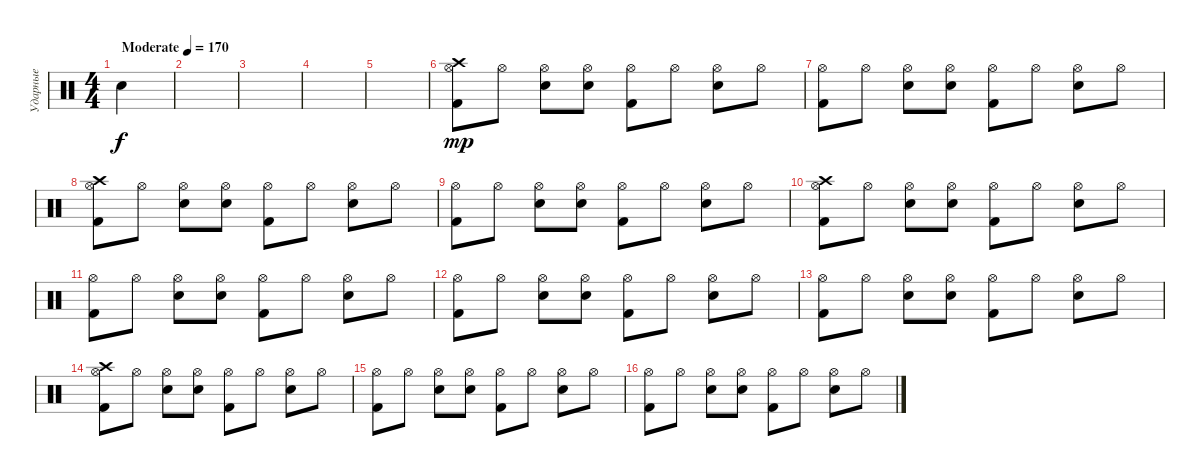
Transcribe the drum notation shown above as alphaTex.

\track ("Ударные" "Ударные") {instrument percussion}
\staff {score}
\articulation defaults
\ts (4 4)
\tempo (170 "Moderate")
\clef neutral
\ks c "Snare (hit)".4{dy f}
|
|
|
|
|
("Crash high (hit)" "Hi-Hat (open)" "Kick (hit) 2").8{dy mp} "Hi-Hat (open)".8 ("Hi-Hat (open)" "Electric Snare (hit)").8 ("Hi-Hat (open)" "Electric Snare (hit)").8 ("Hi-Hat (open)" "Kick (hit) 2").8 "Hi-Hat (open)".8 ("Hi-Hat (open)" "Electric Snare (hit)").8 "Hi-Hat (open)".8 |
("Hi-Hat (open)" "Kick (hit) 2").8 "Hi-Hat (open)".8 ("Hi-Hat (open)" "Electric Snare (hit)").8 ("Hi-Hat (open)" "Electric Snare (hit)").8 ("Hi-Hat (open)" "Kick (hit) 2").8 "Hi-Hat (open)".8 ("Hi-Hat (open)" "Electric Snare (hit)").8 "Hi-Hat (open)".8 |
("Crash high (hit)" "Hi-Hat (open)" "Kick (hit) 2").8 "Hi-Hat (open)".8 ("Hi-Hat (open)" "Electric Snare (hit)").8 ("Hi-Hat (open)" "Electric Snare (hit)").8 ("Hi-Hat (open)" "Kick (hit) 2").8 "Hi-Hat (open)".8 ("Hi-Hat (open)" "Electric Snare (hit)").8 "Hi-Hat (open)".8 |
("Hi-Hat (open)" "Kick (hit) 2").8 "Hi-Hat (open)".8 ("Hi-Hat (open)" "Electric Snare (hit)").8 ("Hi-Hat (open)" "Electric Snare (hit)").8 ("Hi-Hat (open)" "Kick (hit) 2").8 "Hi-Hat (open)".8 ("Hi-Hat (open)" "Electric Snare (hit)").8 "Hi-Hat (open)".8 |
("Crash high (hit)" "Hi-Hat (open)" "Kick (hit) 2").8 "Hi-Hat (open)".8 ("Hi-Hat (open)" "Electric Snare (hit)").8 ("Hi-Hat (open)" "Electric Snare (hit)").8 ("Hi-Hat (open)" "Kick (hit) 2").8 "Hi-Hat (open)".8 ("Hi-Hat (open)" "Electric Snare (hit)").8 "Hi-Hat (open)".8 |
("Hi-Hat (open)" "Kick (hit) 2").8 "Hi-Hat (open)".8 ("Hi-Hat (open)" "Electric Snare (hit)").8 ("Hi-Hat (open)" "Electric Snare (hit)").8 ("Hi-Hat (open)" "Kick (hit) 2").8 "Hi-Hat (open)".8 ("Hi-Hat (open)" "Electric Snare (hit)").8 "Hi-Hat (open)".8 |
("Hi-Hat (open)" "Kick (hit) 2").8 "Hi-Hat (open)".8 ("Hi-Hat (open)" "Electric Snare (hit)").8 ("Hi-Hat (open)" "Electric Snare (hit)").8 ("Hi-Hat (open)" "Kick (hit) 2").8 "Hi-Hat (open)".8 ("Hi-Hat (open)" "Electric Snare (hit)").8 "Hi-Hat (open)".8 |
("Hi-Hat (open)" "Kick (hit) 2").8 "Hi-Hat (open)".8 ("Hi-Hat (open)" "Electric Snare (hit)").8 ("Hi-Hat (open)" "Electric Snare (hit)").8 ("Hi-Hat (open)" "Kick (hit) 2").8 "Hi-Hat (open)".8 ("Hi-Hat (open)" "Electric Snare (hit)").8 "Hi-Hat (open)".8 |
("Crash high (hit)" "Hi-Hat (open)" "Kick (hit) 2").8 "Hi-Hat (open)".8 ("Hi-Hat (open)" "Electric Snare (hit)").8 ("Hi-Hat (open)" "Electric Snare (hit)").8 ("Hi-Hat (open)" "Kick (hit) 2").8 "Hi-Hat (open)".8 ("Hi-Hat (open)" "Electric Snare (hit)").8 "Hi-Hat (open)".8 |
("Hi-Hat (open)" "Kick (hit) 2").8 "Hi-Hat (open)".8 ("Hi-Hat (open)" "Electric Snare (hit)").8 ("Hi-Hat (open)" "Electric Snare (hit)").8 ("Hi-Hat (open)" "Kick (hit) 2").8 "Hi-Hat (open)".8 ("Hi-Hat (open)" "Electric Snare (hit)").8 "Hi-Hat (open)".8 |
("Hi-Hat (open)" "Kick (hit) 2").8 "Hi-Hat (open)".8 ("Hi-Hat (open)" "Electric Snare (hit)").8 ("Hi-Hat (open)" "Electric Snare (hit)").8 ("Hi-Hat (open)" "Kick (hit) 2").8 "Hi-Hat (open)".8 ("Hi-Hat (open)" "Electric Snare (hit)").8 "Hi-Hat (open)".8
